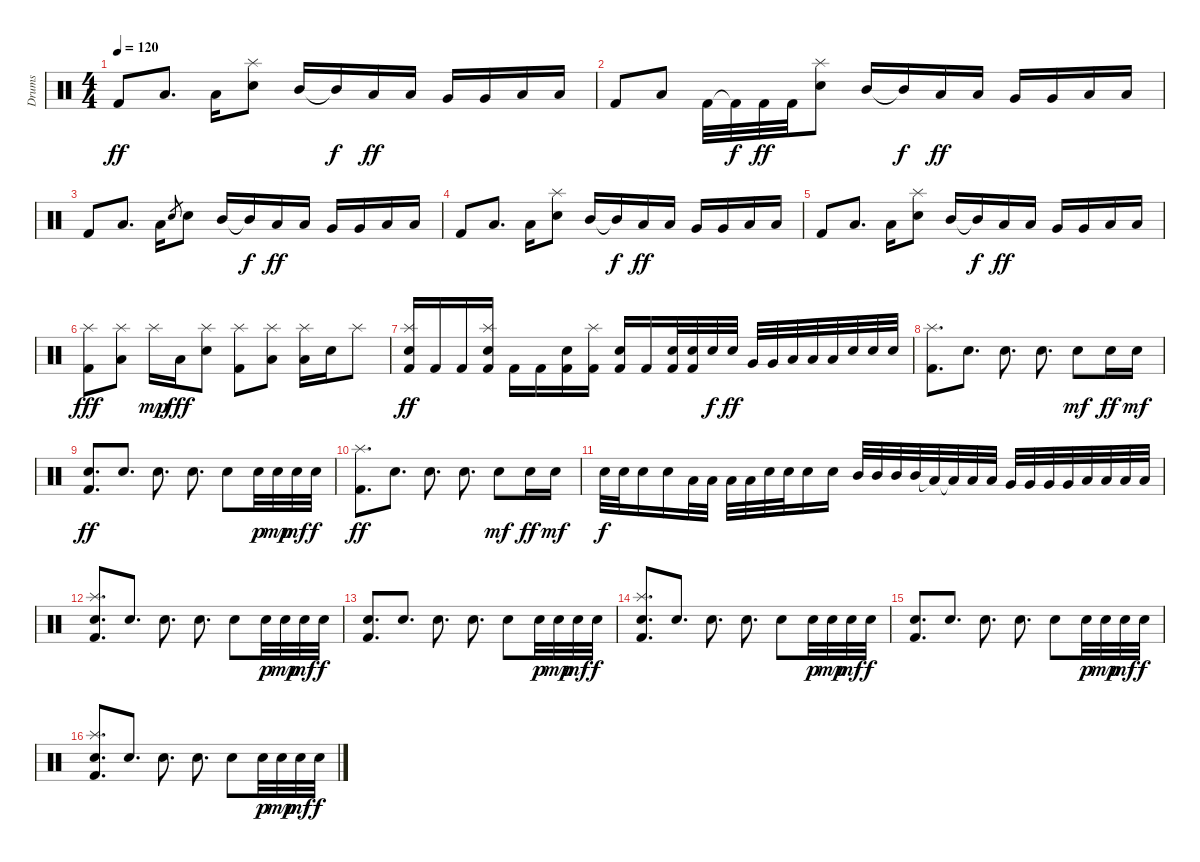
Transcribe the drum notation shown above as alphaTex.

\track ("Drums" "Drums") {instrument percussion}
\staff {score}
\articulation defaults
\ts (4 4)
\tempo 120
\clef neutral
\ks c "Kick (hit) 2".8{dy ff} "Low Tom (hit)".8{d} "Low Tom (hit)".16
("Splash (hit)" "Electric Snare (hit)").8 "Mid Tom (hit)".16 "Mid Tom (hit)"{t}.16{dy f} "Low Tom (hit)".16{dy ff} "Low Tom (hit)".16 "Very Low Tom (hit)".16 "Very Low Tom (hit)".16 "Low Floor Tom (hit)".16 "Low Floor Tom (hit)".16 |
"Kick (hit) 2".8 "Low Tom (hit)".8 "Kick (hit) 2".32 "Kick (hit) 2"{t}.32{dy f} "Kick (hit) 2".32{dy ff} "Kick (hit) 2".32 ("Splash (hit)" "Electric Snare (hit)").8 "Mid Tom (hit)".16 "Mid Tom (hit)"{t}.16{dy f} "Low Tom (hit)".16{dy ff} "Low Tom (hit)".16 "Very Low Tom (hit)".16 "Very Low Tom (hit)".16 "Low Floor Tom (hit)".16 "Low Floor Tom (hit)".16 |
"Kick (hit) 2".8 "Low Tom (hit)".8{d} "Low Tom (hit)".16 "Electric Snare (hit)".8{gr} "Electric Snare (hit)".8 "Mid Tom (hit)".16 "Mid Tom (hit)"{t}.16{dy f} "Low Tom (hit)".16{dy ff} "Low Tom (hit)".16 "Very Low Tom (hit)".16 "Very Low Tom (hit)".16 "Low Floor Tom (hit)".16 "Low Floor Tom (hit)".16 |
"Kick (hit) 2".8 "Low Tom (hit)".8{d} "Low Tom (hit)".16 ("Splash (hit)" "Electric Snare (hit)").8 "Mid Tom (hit)".16 "Mid Tom (hit)"{t}.16{dy f} "Low Tom (hit)".16{dy ff} "Low Tom (hit)".16 "Very Low Tom (hit)".16 "Very Low Tom (hit)".16 "Low Floor Tom (hit)".16 "Low Floor Tom (hit)".16 |
"Kick (hit) 2".8 "Low Tom (hit)".8{d} "Low Tom (hit)".16 ("Splash (hit)" "Electric Snare (hit)").8 "Mid Tom (hit)".16 "Mid Tom (hit)"{t}.16{dy f} "Low Tom (hit)".16{dy ff} "Low Tom (hit)".16 "Very Low Tom (hit)".16 "Very Low Tom (hit)".16 "Low Floor Tom (hit)".16 "Low Floor Tom (hit)".16 |
("Splash (hit)" "Kick (hit) 2").8{dy fff} ("Splash (hit)" "Low Tom (hit)").8 "Splash (hit)".16{dy mp} "Low Tom (hit)".16{dy fff} ("Splash (hit)" "Electric Snare (hit)").8 ("Splash (hit)" "Kick (hit) 2").8 ("Splash (hit)" "Low Tom (hit)").8 ("Splash (hit)" "Low Tom (hit)").16 "Electric Snare (hit)".16 "Splash (hit)".8 |
("Splash (hit)" "Electric Snare (hit)" "Kick (hit) 2").16{dy ff} "Kick (hit) 2".16 "Kick (hit) 2".16 ("Splash (hit)" "Electric Snare (hit)" "Kick (hit) 2").16 "Kick (hit) 2".16 "Kick (hit) 2".16 ("Electric Snare (hit)" "Kick (hit) 2").16 ("Splash (hit)" "Kick (hit) 2").16 ("Electric Snare (hit)" "Kick (hit) 2").16 "Kick (hit) 2".16 ("Electric Snare (hit)" "Kick (hit) 2").32 ("Electric Snare (hit)" "Kick (hit) 2").32 "Electric Snare (hit)".32{dy f} "Electric Snare (hit)".32{dy ff} "Very Low Tom (hit)".32 "Very Low Tom (hit)".32 "Low Tom (hit)".32 "Low Tom (hit)".32 "Low Tom (hit)".32 "Electric Snare (hit)".32 "Electric Snare (hit)".32 "Electric Snare (hit)".32 |
("Splash (hit)" "Kick (hit) 2").8{d} "Electric Snare (hit)".8{d} "Electric Snare (hit)".8{d} "Electric Snare (hit)".8{d} "Electric Snare (hit)".8{dy mf} "Electric Snare (hit)".16{dy ff} "Electric Snare (hit)".16{dy mf} |
("Electric Snare (hit)" "Kick (hit) 2").8{d dy ff} "Electric Snare (hit)".8{d} "Electric Snare (hit)".8{d} "Electric Snare (hit)".8{d} "Electric Snare (hit)".8 "Electric Snare (hit)".32{dy p} "Electric Snare (hit)".32{dy mp} "Electric Snare (hit)".32{dy mf} "Electric Snare (hit)".32{dy f} |
("Splash (hit)" "Kick (hit) 2").8{d dy ff} "Electric Snare (hit)".8{d} "Electric Snare (hit)".8{d} "Electric Snare (hit)".8{d} "Electric Snare (hit)".8{dy mf} "Electric Snare (hit)".16{dy ff} "Electric Snare (hit)".16{dy mf} |
"Electric Snare (hit)".32{dy f} "Electric Snare (hit)".32 "Electric Snare (hit)".16 "Electric Snare (hit)".16 "Low Tom (hit)".32 "Low Tom (hit)".32 "Low Tom (hit)".32 "Low Tom (hit)".32 "Electric Snare (hit)".32 "Electric Snare (hit)".32 "Electric Snare (hit)".16 "Electric Snare (hit)".16 "Mid Tom (hit)".32 "Mid Tom (hit)".32 "Mid Tom (hit)".32 "Mid Tom (hit)".32 "Low Tom (hit)"{t}.32 "Low Tom (hit)"{t}.32 "Low Tom (hit)".32 "Low Tom (hit)".32 "Very Low Tom (hit)".32 "Very Low Tom (hit)".32 "Very Low Tom (hit)".32 "Very Low Tom (hit)".32 "Low Floor Tom (hit)".32 "Low Floor Tom (hit)".32 "Low Floor Tom (hit)".32 "Low Floor Tom (hit)".32 |
("Splash (hit)" "Electric Snare (hit)" "Kick (hit) 2").8{d} "Electric Snare (hit)".8{d} "Electric Snare (hit)".8{d} "Electric Snare (hit)".8{d} "Electric Snare (hit)".8 "Electric Snare (hit)".32{dy p} "Electric Snare (hit)".32{dy mp} "Electric Snare (hit)".32{dy mf} "Electric Snare (hit)".32{dy f} |
("Electric Snare (hit)" "Kick (hit) 2").8{d} "Electric Snare (hit)".8{d} "Electric Snare (hit)".8{d} "Electric Snare (hit)".8{d} "Electric Snare (hit)".8 "Electric Snare (hit)".32{dy p} "Electric Snare (hit)".32{dy mp} "Electric Snare (hit)".32{dy mf} "Electric Snare (hit)".32{dy f} |
("Splash (hit)" "Electric Snare (hit)" "Kick (hit) 2").8{d} "Electric Snare (hit)".8{d} "Electric Snare (hit)".8{d} "Electric Snare (hit)".8{d} "Electric Snare (hit)".8 "Electric Snare (hit)".32{dy p} "Electric Snare (hit)".32{dy mp} "Electric Snare (hit)".32{dy mf} "Electric Snare (hit)".32{dy f} |
("Electric Snare (hit)" "Kick (hit) 2").8{d} "Electric Snare (hit)".8{d} "Electric Snare (hit)".8{d} "Electric Snare (hit)".8{d} "Electric Snare (hit)".8 "Electric Snare (hit)".32{dy p} "Electric Snare (hit)".32{dy mp} "Electric Snare (hit)".32{dy mf} "Electric Snare (hit)".32{dy f} |
("Splash (hit)" "Electric Snare (hit)" "Kick (hit) 2").8{d} "Electric Snare (hit)".8{d} "Electric Snare (hit)".8{d} "Electric Snare (hit)".8{d} "Electric Snare (hit)".8 "Electric Snare (hit)".32{dy p} "Electric Snare (hit)".32{dy mp} "Electric Snare (hit)".32{dy mf} "Electric Snare (hit)".32{dy f}
